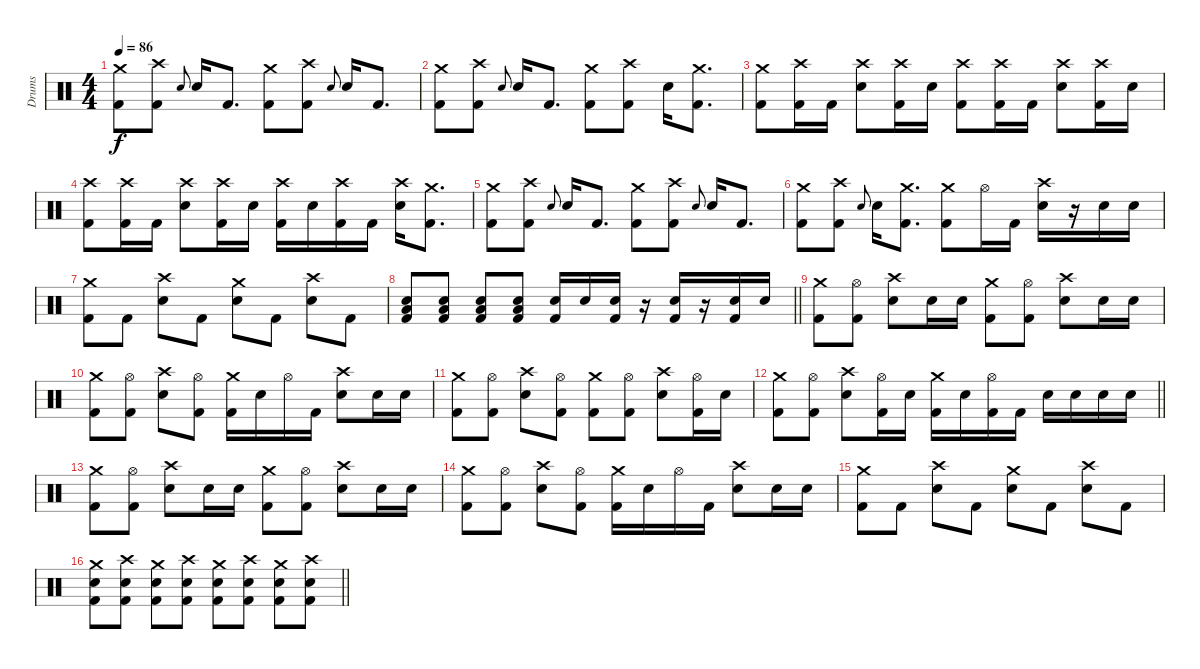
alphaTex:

\track ("Drums" "Drums") {instrument percussion}
\staff {score}
\articulation defaults
\ts (4 4)
\tempo 86
\clef neutral
\ks c
("Crash medium (hit)" "Kick (hit) 2").8{dy f} ("Crash high (hit)" "Kick (hit) 2").8 "Electric Snare (hit)".8{gr onbeat} "Electric Snare (hit)".16 "Kick (hit) 2".8{d} ("Crash medium (hit)" "Kick (hit) 2").8 ("Crash high (hit)" "Kick (hit) 2").8 "Electric Snare (hit)".8{gr onbeat} "Electric Snare (hit)".16 "Kick (hit) 2".8{d} |
("Crash medium (hit)" "Kick (hit) 2").8 ("Crash high (hit)" "Kick (hit) 2").8 "Electric Snare (hit)".8{gr onbeat} "Electric Snare (hit)".16 "Kick (hit) 2".8{d} ("Crash medium (hit)" "Kick (hit) 2").8 ("Crash high (hit)" "Kick (hit) 2").8 "Electric Snare (hit)".16 ("Crash medium (hit)" "Kick (hit) 2").8{d} |
("Crash medium (hit)" "Kick (hit) 2").8 ("Crash high (hit)" "Kick (hit) 2").16 "Kick (hit) 2".16 ("Crash high (hit)" "Electric Snare (hit)").8 ("Crash high (hit)" "Kick (hit) 2").16 "Electric Snare (hit)".16 ("Crash high (hit)" "Kick (hit) 2").8 ("Crash high (hit)" "Kick (hit) 2").16 "Kick (hit) 2".16 ("Crash high (hit)" "Electric Snare (hit)").8 ("Crash high (hit)" "Kick (hit) 2").16 "Electric Snare (hit)".16 |
("Crash high (hit)" "Kick (hit) 2").8 ("Crash high (hit)" "Kick (hit) 2").16 "Kick (hit) 2".16 ("Crash high (hit)" "Electric Snare (hit)").8 ("Crash high (hit)" "Kick (hit) 2").16 "Electric Snare (hit)".16 ("Crash high (hit)" "Kick (hit) 2").16 "Electric Snare (hit)".16 ("Crash high (hit)" "Kick (hit) 2").16 "Kick (hit) 2".16 ("Crash high (hit)" "Electric Snare (hit)").16 ("Crash medium (hit)" "Kick (hit) 2").8{d} |
("Crash medium (hit)" "Kick (hit) 2").8 ("Crash high (hit)" "Kick (hit) 2").8 "Electric Snare (hit)".8{gr onbeat} "Electric Snare (hit)".16 "Kick (hit) 2".8{d} ("Crash medium (hit)" "Kick (hit) 2").8 ("Crash high (hit)" "Kick (hit) 2").8 "Electric Snare (hit)".8{gr onbeat} "Electric Snare (hit)".16 "Kick (hit) 2".8{d} |
("Crash medium (hit)" "Kick (hit) 2").8 ("Crash high (hit)" "Kick (hit) 2").8 "Electric Snare (hit)".8{gr onbeat} "Electric Snare (hit)".16 ("Crash medium (hit)" "Kick (hit) 2").8{d} ("Crash medium (hit)" "Kick (hit) 2").8 "Hi-Hat (open)".16 "Kick (hit) 2".16 ("Crash high (hit)" "Electric Snare (hit)").16 r.16 "Electric Snare (hit)".16 "Electric Snare (hit)".16 |
("Crash medium (hit)" "Kick (hit) 2").8 "Kick (hit) 2".8 ("Crash high (hit)" "Electric Snare (hit)").8 "Kick (hit) 2".8 ("Crash medium (hit)" "Electric Snare (hit)").8 "Kick (hit) 2".8 ("Crash high (hit)" "Electric Snare (hit)").8 "Kick (hit) 2".8 |
\barLineRight lightlight
("Electric Snare (hit)" "Low Floor Tom (hit)" "Kick (hit) 2").8 ("Electric Snare (hit)" "Low Floor Tom (hit)" "Kick (hit) 2").8 ("Electric Snare (hit)" "Low Floor Tom (hit)" "Kick (hit) 2").8 ("Electric Snare (hit)" "Low Floor Tom (hit)" "Kick (hit) 2").8 ("Electric Snare (hit)" "Kick (hit) 2").16 "Electric Snare (hit)".16 ("Electric Snare (hit)" "Kick (hit) 2").16 r.16 ("Electric Snare (hit)" "Kick (hit) 2").16 r.16 ("Electric Snare (hit)" "Kick (hit) 2").16 "Electric Snare (hit)".16 |
("Crash medium (hit)" "Kick (hit) 2").8 ("Hi-Hat (open)" "Kick (hit) 2").8 ("Crash high (hit)" "Electric Snare (hit)").8 "Electric Snare (hit)".16 "Electric Snare (hit)".16 ("Crash medium (hit)" "Kick (hit) 2").8 ("Hi-Hat (open)" "Kick (hit) 2").8 ("Crash high (hit)" "Electric Snare (hit)").8 "Electric Snare (hit)".16 "Electric Snare (hit)".16 |
("Crash medium (hit)" "Kick (hit) 2").8 ("Hi-Hat (open)" "Kick (hit) 2").8 ("Crash high (hit)" "Electric Snare (hit)").8 ("Hi-Hat (open)" "Kick (hit) 2").8 ("Crash medium (hit)" "Kick (hit) 2").16 "Electric Snare (hit)".16 "Hi-Hat (open)".16 "Kick (hit) 2".16 ("Crash high (hit)" "Electric Snare (hit)").8 "Electric Snare (hit)".16 "Electric Snare (hit)".16 |
("Crash medium (hit)" "Kick (hit) 2").8 ("Hi-Hat (open)" "Kick (hit) 2").8 ("Crash high (hit)" "Electric Snare (hit)").8 ("Hi-Hat (open)" "Kick (hit) 2").8 ("Crash medium (hit)" "Kick (hit) 2").8 ("Hi-Hat (open)" "Kick (hit) 2").8 ("Crash high (hit)" "Electric Snare (hit)").8 ("Hi-Hat (open)" "Kick (hit) 2").16 "Electric Snare (hit)".16 |
\barLineRight lightlight
("Crash medium (hit)" "Kick (hit) 2").8 ("Hi-Hat (open)" "Kick (hit) 2").8 ("Crash high (hit)" "Electric Snare (hit)").8 ("Hi-Hat (open)" "Kick (hit) 2").16 "Electric Snare (hit)".16 ("Crash medium (hit)" "Kick (hit) 2").16 "Electric Snare (hit)".16 ("Hi-Hat (open)" "Kick (hit) 2").16 "Kick (hit) 2".16 "Electric Snare (hit)".16 "Electric Snare (hit)".16 "Electric Snare (hit)".16 "Electric Snare (hit)".16 |
("Crash medium (hit)" "Kick (hit) 2").8 ("Hi-Hat (open)" "Kick (hit) 2").8 ("Crash high (hit)" "Electric Snare (hit)").8 "Electric Snare (hit)".16 "Electric Snare (hit)".16 ("Crash medium (hit)" "Kick (hit) 2").8 ("Hi-Hat (open)" "Kick (hit) 2").8 ("Crash high (hit)" "Electric Snare (hit)").8 "Electric Snare (hit)".16 "Electric Snare (hit)".16 |
("Crash medium (hit)" "Kick (hit) 2").8 ("Hi-Hat (open)" "Kick (hit) 2").8 ("Crash high (hit)" "Electric Snare (hit)").8 ("Hi-Hat (open)" "Kick (hit) 2").8 ("Crash medium (hit)" "Kick (hit) 2").16 "Electric Snare (hit)".16 "Hi-Hat (open)".16 "Kick (hit) 2".16 ("Crash high (hit)" "Electric Snare (hit)").8 "Electric Snare (hit)".16 "Electric Snare (hit)".16 |
("Crash medium (hit)" "Kick (hit) 2").8 "Kick (hit) 2".8 ("Crash high (hit)" "Electric Snare (hit)").8 "Kick (hit) 2".8 ("Crash medium (hit)" "Electric Snare (hit)").8 "Kick (hit) 2".8 ("Crash high (hit)" "Electric Snare (hit)").8 "Kick (hit) 2".8 |
\barLineRight lightlight
("Crash medium (hit)" "Electric Snare (hit)" "Kick (hit) 2").8 ("Crash high (hit)" "Electric Snare (hit)" "Kick (hit) 2").8 ("Crash medium (hit)" "Electric Snare (hit)" "Kick (hit) 2").8 ("Crash high (hit)" "Electric Snare (hit)" "Kick (hit) 2").8 ("Crash medium (hit)" "Electric Snare (hit)" "Kick (hit) 2").8 ("Crash high (hit)" "Electric Snare (hit)" "Kick (hit) 2").8 ("Crash medium (hit)" "Electric Snare (hit)" "Kick (hit) 2").8 ("Crash high (hit)" "Electric Snare (hit)" "Kick (hit) 2").8
